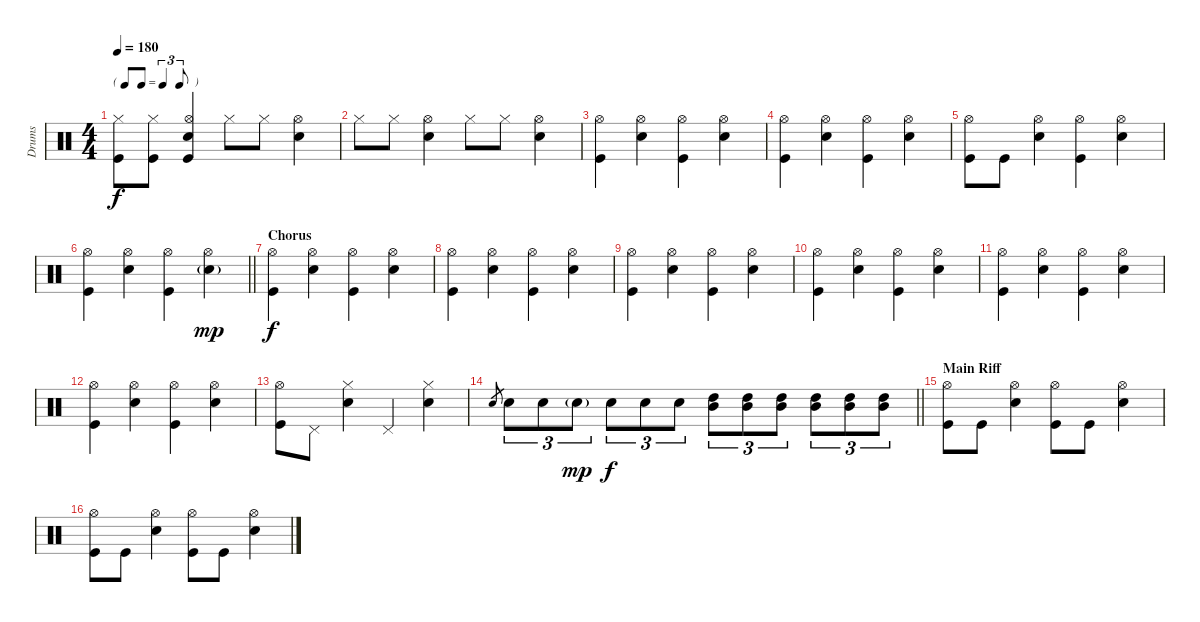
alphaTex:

\track ("Drums" "Drums") {instrument percussion}
\staff {score}
\articulation defaults
\ts (4 4)
\tf triplet8th
\tempo 180
\clef neutral
\ks c
("Hi-Hat (closed)" "Kick (hit)").8{dy f} ("Hi-Hat (closed)" "Kick (hit)").8 ("Hi-Hat (open)" "Electric Snare (hit)" "Kick (hit)").4 "Hi-Hat (closed)".8 "Hi-Hat (closed)".8 ("Hi-Hat (open)" "Electric Snare (hit)").4 |
"Hi-Hat (closed)".8 "Hi-Hat (closed)".8 ("Hi-Hat (open)" "Electric Snare (hit)").4 "Hi-Hat (closed)".8 "Hi-Hat (closed)".8 ("Hi-Hat (open)" "Electric Snare (hit)").4 |
("Hi-Hat (open)" "Kick (hit)").4 ("Hi-Hat (open)" "Electric Snare (hit)").4 ("Hi-Hat (open)" "Kick (hit)").4 ("Hi-Hat (open)" "Electric Snare (hit)").4 |
("Hi-Hat (open)" "Kick (hit)").4 ("Hi-Hat (open)" "Electric Snare (hit)").4 ("Hi-Hat (open)" "Kick (hit)").4 ("Hi-Hat (open)" "Electric Snare (hit)").4 |
("Hi-Hat (open)" "Kick (hit)").8 "Kick (hit)".8 ("Hi-Hat (open)" "Electric Snare (hit)").4 ("Hi-Hat (open)" "Kick (hit)").4 ("Hi-Hat (open)" "Electric Snare (hit)").4 |
\barLineRight lightlight
("Hi-Hat (open)" "Kick (hit)").4 ("Hi-Hat (open)" "Electric Snare (hit)").4 ("Hi-Hat (open)" "Kick (hit)").4 ("Hi-Hat (open)" "Electric Snare (hit)"{g}).4{dy mp} |
\section ("" "Chorus")
("Hi-Hat (open)" "Kick (hit)").4{dy f} ("Hi-Hat (open)" "Electric Snare (hit)").4 ("Hi-Hat (open)" "Kick (hit)").4 ("Hi-Hat (open)" "Electric Snare (hit)").4 |
("Hi-Hat (open)" "Kick (hit)").4 ("Hi-Hat (open)" "Electric Snare (hit)").4 ("Hi-Hat (open)" "Kick (hit)").4 ("Hi-Hat (open)" "Electric Snare (hit)").4 |
("Hi-Hat (open)" "Kick (hit)").4 ("Hi-Hat (open)" "Electric Snare (hit)").4 ("Hi-Hat (open)" "Kick (hit)").4 ("Hi-Hat (open)" "Electric Snare (hit)").4 |
("Hi-Hat (open)" "Kick (hit)").4 ("Hi-Hat (open)" "Electric Snare (hit)").4 ("Hi-Hat (open)" "Kick (hit)").4 ("Hi-Hat (open)" "Electric Snare (hit)").4 |
("Hi-Hat (open)" "Kick (hit)").4 ("Hi-Hat (open)" "Electric Snare (hit)").4 ("Hi-Hat (open)" "Kick (hit)").4 ("Hi-Hat (open)" "Electric Snare (hit)").4 |
("Hi-Hat (open)" "Kick (hit)").4 ("Hi-Hat (open)" "Electric Snare (hit)").4 ("Hi-Hat (open)" "Kick (hit)").4 ("Hi-Hat (open)" "Electric Snare (hit)").4 |
("Hi-Hat (open)" "Kick (hit)").8 "Pedal Hi-Hat (hit)".8 ("Hi-Hat (closed)" "Electric Snare (hit)").4 "Pedal Hi-Hat (hit)".4 ("Hi-Hat (closed)" "Electric Snare (hit)").4 |
\barLineRight lightlight "Electric Snare (hit)".8{gr} "Electric Snare (hit)".8{tu (3 2)} "Electric Snare (hit)".8{tu (3 2)} "Electric Snare (hit)"{g}.8{tu (3 2) dy mp} "Electric Snare (hit)".8{tu (3 2) dy f} "Electric Snare (hit)".8{tu (3 2)} "Electric Snare (hit)".8{tu (3 2)}
("High Tom (hit)" "Mid Tom (hit)").8{tu (3 2)} ("High Tom (hit)" "Mid Tom (hit)").8{tu (3 2)} ("High Tom (hit)" "Mid Tom (hit)").8{tu (3 2)} ("High Tom (hit)" "Mid Tom (hit)").8{tu (3 2)} ("High Tom (hit)" "Mid Tom (hit)").8{tu (3 2)} ("High Tom (hit)" "Mid Tom (hit)").8{tu (3 2)} |
\section ("" "Main Riff")
("Hi-Hat (open)" "Kick (hit)").8 "Kick (hit)".8 ("Hi-Hat (open)" "Electric Snare (hit)").4 ("Hi-Hat (open)" "Kick (hit)").8 "Kick (hit)".8 ("Hi-Hat (open)" "Electric Snare (hit)").4 |
("Hi-Hat (open)" "Kick (hit)").8 "Kick (hit)".8 ("Hi-Hat (open)" "Electric Snare (hit)").4 ("Hi-Hat (open)" "Kick (hit)").8 "Kick (hit)".8 ("Hi-Hat (open)" "Electric Snare (hit)").4
